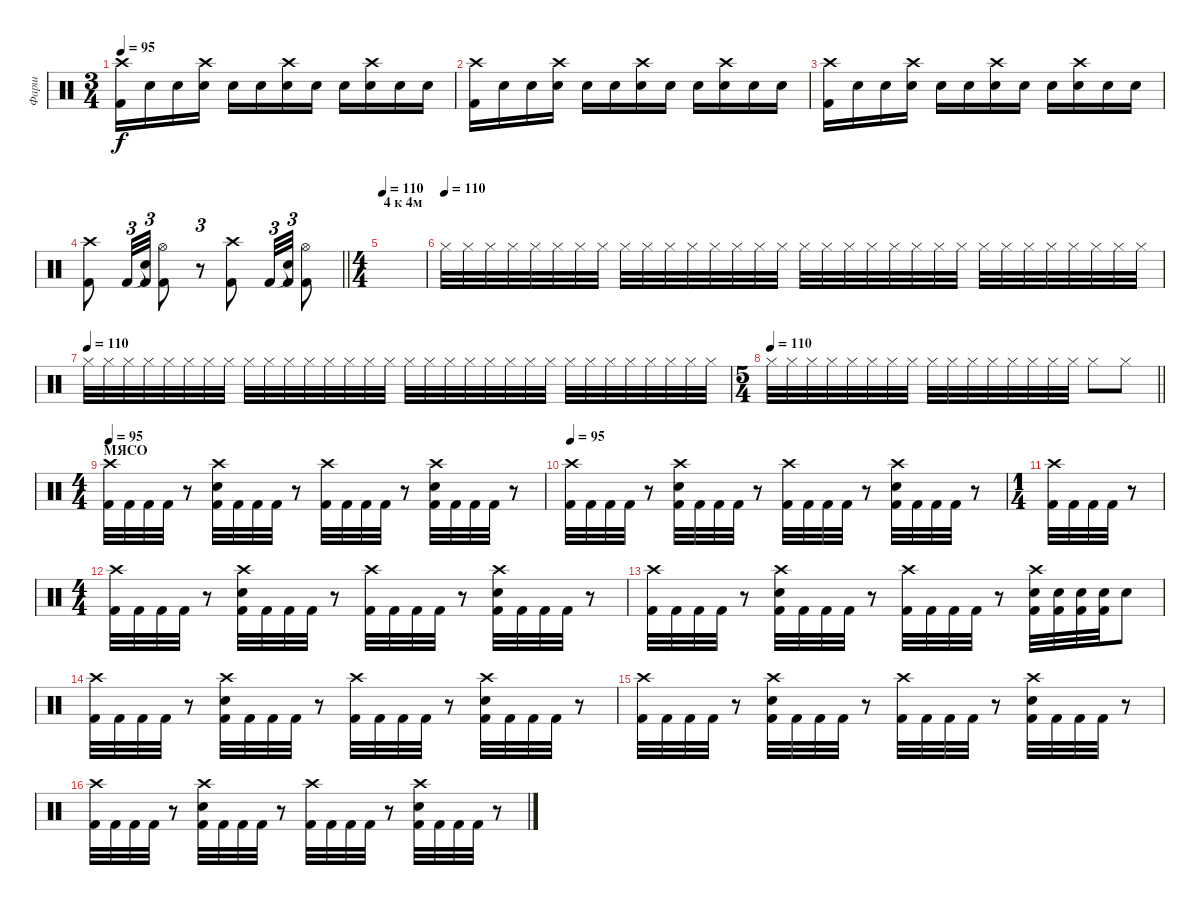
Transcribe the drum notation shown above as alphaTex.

\track ("Фарш" "Фарш") {instrument percussion}
\staff {score}
\articulation defaults
\ts (3 4)
\tempo 95
\clef neutral
\ks c
("Crash high (hit)" "Kick (hit) 2").16{dy f} "Snare (hit)".16 "Snare (hit)".16 ("Crash high (hit)" "Snare (hit)").16 "Snare (hit)".16 "Snare (hit)".16 ("Crash high (hit)" "Electric Snare (hit)").16 "Snare (hit)".16 "Snare (hit)".16 ("Crash high (hit)" "Snare (hit)").16 "Snare (hit)".16 "Snare (hit)".16 |
("Crash high (hit)" "Kick (hit) 2").16 "Snare (hit)".16 "Snare (hit)".16 ("Crash high (hit)" "Snare (hit)").16 "Snare (hit)".16 "Snare (hit)".16 ("Crash high (hit)" "Electric Snare (hit)").16 "Snare (hit)".16 "Snare (hit)".16 ("Crash high (hit)" "Snare (hit)").16 "Snare (hit)".16 "Snare (hit)".16 |
("Crash high (hit)" "Kick (hit) 2").16 "Snare (hit)".16 "Snare (hit)".16 ("Crash high (hit)" "Snare (hit)").16 "Snare (hit)".16 "Snare (hit)".16 ("Crash high (hit)" "Electric Snare (hit)").16 "Snare (hit)".16 "Snare (hit)".16 ("Crash high (hit)" "Snare (hit)").16 "Snare (hit)".16 "Snare (hit)".16 |
\barLineRight lightlight
("Crash high (hit)" "Kick (hit) 2").8 "Kick (hit) 2".32{tu (3 2)} ("Snare (hit)"{t} "Kick (hit) 2").32{tu (3 2)} ("Hi-Hat (open)" "Kick (hit) 2").8 r.8{tu (3 2)} ("Crash high (hit)" "Kick (hit) 2").8 "Kick (hit) 2".32{tu (3 2)} ("Snare (hit)"{t} "Kick (hit) 2").32{tu (3 2)} ("Hi-Hat (open)" "Kick (hit) 2").8 |
\ts (4 4)
\section ("" "4 к 4м")
\tempo 110
|
\tempo (110)
"Hi-Hat (closed)".32 "Hi-Hat (closed)".32 "Hi-Hat (closed)".32 "Hi-Hat (closed)".32 "Hi-Hat (closed)".32 "Hi-Hat (closed)".32 "Hi-Hat (closed)".32 "Hi-Hat (closed)".32 "Hi-Hat (closed)".32 "Hi-Hat (closed)".32 "Hi-Hat (closed)".32 "Hi-Hat (closed)".32 "Hi-Hat (closed)".32 "Hi-Hat (closed)".32 "Hi-Hat (closed)".32 "Hi-Hat (closed)".32 "Hi-Hat (closed)".32 "Hi-Hat (closed)".32 "Hi-Hat (closed)".32 "Hi-Hat (closed)".32 "Hi-Hat (closed)".32 "Hi-Hat (closed)".32 "Hi-Hat (closed)".32 "Hi-Hat (closed)".32 "Hi-Hat (closed)".32 "Hi-Hat (closed)".32 "Hi-Hat (closed)".32 "Hi-Hat (closed)".32 "Hi-Hat (closed)".32 "Hi-Hat (closed)".32 "Hi-Hat (closed)".32 "Hi-Hat (closed)".32 |
\tempo (110)
"Hi-Hat (closed)".32 "Hi-Hat (closed)".32 "Hi-Hat (closed)".32 "Hi-Hat (closed)".32 "Hi-Hat (closed)".32 "Hi-Hat (closed)".32 "Hi-Hat (closed)".32 "Hi-Hat (closed)".32 "Hi-Hat (closed)".32 "Hi-Hat (closed)".32 "Hi-Hat (closed)".32 "Hi-Hat (closed)".32 "Hi-Hat (closed)".32 "Hi-Hat (closed)".32 "Hi-Hat (closed)".32 "Hi-Hat (closed)".32 "Hi-Hat (closed)".32 "Hi-Hat (closed)".32 "Hi-Hat (closed)".32 "Hi-Hat (closed)".32 "Hi-Hat (closed)".32 "Hi-Hat (closed)".32 "Hi-Hat (closed)".32 "Hi-Hat (closed)".32 "Hi-Hat (closed)".32 "Hi-Hat (closed)".32 "Hi-Hat (closed)".32 "Hi-Hat (closed)".32 "Hi-Hat (closed)".32 "Hi-Hat (closed)".32 "Hi-Hat (closed)".32 "Hi-Hat (closed)".32 |
\ts (5 4)
\tempo 110
\barLineRight lightlight "Hi-Hat (closed)".32 "Hi-Hat (closed)".32 "Hi-Hat (closed)".32 "Hi-Hat (closed)".32 "Hi-Hat (closed)".32 "Hi-Hat (closed)".32 "Hi-Hat (closed)".32 "Hi-Hat (closed)".32 "Hi-Hat (closed)".32 "Hi-Hat (closed)".32 "Hi-Hat (closed)".32 "Hi-Hat (closed)".32 "Hi-Hat (closed)".32 "Hi-Hat (closed)".32 "Hi-Hat (closed)".32 "Hi-Hat (closed)".32 "Hi-Hat (closed)".8 "Hi-Hat (closed)".8
|
\ts (4 4)
\section ("" "МЯСО")
\tempo 95
("Crash high (hit)" "Kick (hit) 2").32 "Kick (hit) 2".32 "Kick (hit) 2".32 "Kick (hit) 2".32 r.8 ("Crash high (hit)" "Electric Snare (hit)" "Kick (hit) 2").32 "Kick (hit) 2".32 "Kick (hit) 2".32 "Kick (hit) 2".32 r.8 ("Crash high (hit)" "Kick (hit) 2").32 "Kick (hit) 2".32 "Kick (hit) 2".32 "Kick (hit) 2".32 r.8 ("Crash high (hit)" "Electric Snare (hit)" "Kick (hit) 2").32 "Kick (hit) 2".32 "Kick (hit) 2".32 "Kick (hit) 2".32 r.8 |
\tempo 95
("Crash high (hit)" "Kick (hit) 2").32 "Kick (hit) 2".32 "Kick (hit) 2".32 "Kick (hit) 2".32 r.8 ("Crash high (hit)" "Electric Snare (hit)" "Kick (hit) 2").32 "Kick (hit) 2".32 "Kick (hit) 2".32 "Kick (hit) 2".32 r.8 ("Crash high (hit)" "Kick (hit) 2").32 "Kick (hit) 2".32 "Kick (hit) 2".32 "Kick (hit) 2".32 r.8 ("Crash high (hit)" "Electric Snare (hit)" "Kick (hit) 2").32 "Kick (hit) 2".32 "Kick (hit) 2".32 "Kick (hit) 2".32 r.8 |
\ts (1 4)
("Crash high (hit)" "Kick (hit) 2").32 "Kick (hit) 2".32 "Kick (hit) 2".32 "Kick (hit) 2".32 r.8 |
\ts (4 4)
("Crash high (hit)" "Kick (hit) 2").32 "Kick (hit) 2".32 "Kick (hit) 2".32 "Kick (hit) 2".32 r.8 ("Crash high (hit)" "Electric Snare (hit)" "Kick (hit) 2").32 "Kick (hit) 2".32 "Kick (hit) 2".32 "Kick (hit) 2".32 r.8 ("Crash high (hit)" "Kick (hit) 2").32 "Kick (hit) 2".32 "Kick (hit) 2".32 "Kick (hit) 2".32 r.8 ("Crash high (hit)" "Electric Snare (hit)" "Kick (hit) 2").32 "Kick (hit) 2".32 "Kick (hit) 2".32 "Kick (hit) 2".32 r.8 |
("Crash high (hit)" "Kick (hit) 2").32 "Kick (hit) 2".32 "Kick (hit) 2".32 "Kick (hit) 2".32 r.8 ("Crash high (hit)" "Electric Snare (hit)" "Kick (hit) 2").32 "Kick (hit) 2".32 "Kick (hit) 2".32 "Kick (hit) 2".32 r.8 ("Crash high (hit)" "Kick (hit) 2").32 "Kick (hit) 2".32 "Kick (hit) 2".32 "Kick (hit) 2".32 r.8 ("Crash high (hit)" "Electric Snare (hit)" "Kick (hit) 2").32 ("Electric Snare (hit)" "Kick (hit) 2").32 ("Electric Snare (hit)" "Kick (hit) 2").32 ("Electric Snare (hit)" "Kick (hit) 2").32 "Electric Snare (hit)".8 |
("Crash high (hit)" "Kick (hit) 2").32 "Kick (hit) 2".32 "Kick (hit) 2".32 "Kick (hit) 2".32 r.8 ("Crash high (hit)" "Electric Snare (hit)" "Kick (hit) 2").32 "Kick (hit) 2".32 "Kick (hit) 2".32 "Kick (hit) 2".32 r.8 ("Crash high (hit)" "Kick (hit) 2").32 "Kick (hit) 2".32 "Kick (hit) 2".32 "Kick (hit) 2".32 r.8 ("Crash high (hit)" "Electric Snare (hit)" "Kick (hit) 2").32 "Kick (hit) 2".32 "Kick (hit) 2".32 "Kick (hit) 2".32 r.8 |
("Crash high (hit)" "Kick (hit) 2").32 "Kick (hit) 2".32 "Kick (hit) 2".32 "Kick (hit) 2".32 r.8 ("Crash high (hit)" "Electric Snare (hit)" "Kick (hit) 2").32 "Kick (hit) 2".32 "Kick (hit) 2".32 "Kick (hit) 2".32 r.8 ("Crash high (hit)" "Kick (hit) 2").32 "Kick (hit) 2".32 "Kick (hit) 2".32 "Kick (hit) 2".32 r.8 ("Crash high (hit)" "Electric Snare (hit)" "Kick (hit) 2").32 "Kick (hit) 2".32 "Kick (hit) 2".32 "Kick (hit) 2".32 r.8 |
("Crash high (hit)" "Kick (hit) 2").32 "Kick (hit) 2".32 "Kick (hit) 2".32 "Kick (hit) 2".32 r.8 ("Crash high (hit)" "Electric Snare (hit)" "Kick (hit) 2").32 "Kick (hit) 2".32 "Kick (hit) 2".32 "Kick (hit) 2".32 r.8 ("Crash high (hit)" "Kick (hit) 2").32 "Kick (hit) 2".32 "Kick (hit) 2".32 "Kick (hit) 2".32 r.8 ("Crash high (hit)" "Electric Snare (hit)" "Kick (hit) 2").32 "Kick (hit) 2".32 "Kick (hit) 2".32 "Kick (hit) 2".32 r.8
